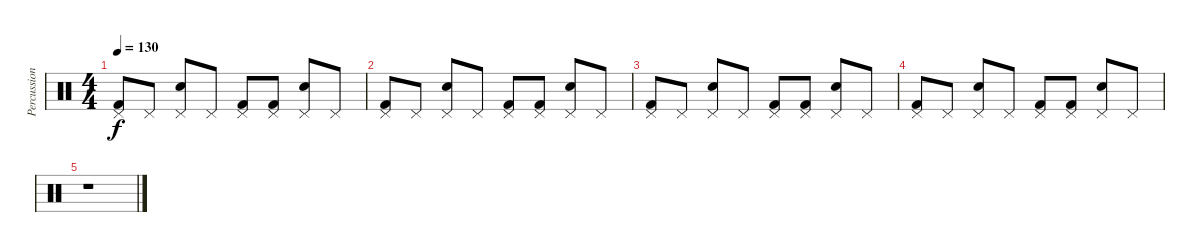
\track ("Percussion" "Percussion") {instrument percussion}
\staff {score}
\articulation defaults
\ts (4 4)
\tempo 130
\clef neutral
\ks c
("Pedal Hi-Hat (hit)" "Kick (hit) 2").8{dy f} "Pedal Hi-Hat (hit)".8 ("Pedal Hi-Hat (hit)" "Snare (hit) 2").8 "Pedal Hi-Hat (hit)".8 ("Pedal Hi-Hat (hit)" "Kick (hit) 2").8 ("Pedal Hi-Hat (hit)" "Kick (hit) 2").8 ("Pedal Hi-Hat (hit)" "Snare (hit) 2").8 "Pedal Hi-Hat (hit)".8 |
("Pedal Hi-Hat (hit)" "Kick (hit) 2").8 "Pedal Hi-Hat (hit)".8 ("Pedal Hi-Hat (hit)" "Snare (hit) 2").8 "Pedal Hi-Hat (hit)".8 ("Pedal Hi-Hat (hit)" "Kick (hit) 2").8 ("Pedal Hi-Hat (hit)" "Kick (hit) 2").8 ("Pedal Hi-Hat (hit)" "Snare (hit) 2").8 "Pedal Hi-Hat (hit)".8 |
("Pedal Hi-Hat (hit)" "Kick (hit) 2").8 "Pedal Hi-Hat (hit)".8 ("Pedal Hi-Hat (hit)" "Snare (hit) 2").8 "Pedal Hi-Hat (hit)".8 ("Pedal Hi-Hat (hit)" "Kick (hit) 2").8 ("Pedal Hi-Hat (hit)" "Kick (hit) 2").8 ("Pedal Hi-Hat (hit)" "Snare (hit) 2").8 "Pedal Hi-Hat (hit)".8 |
("Pedal Hi-Hat (hit)" "Kick (hit) 2").8 "Pedal Hi-Hat (hit)".8 ("Pedal Hi-Hat (hit)" "Snare (hit) 2").8 "Pedal Hi-Hat (hit)".8 ("Pedal Hi-Hat (hit)" "Kick (hit) 2").8 ("Pedal Hi-Hat (hit)" "Kick (hit) 2").8 ("Pedal Hi-Hat (hit)" "Snare (hit) 2").8 "Pedal Hi-Hat (hit)".8 |
r.1
